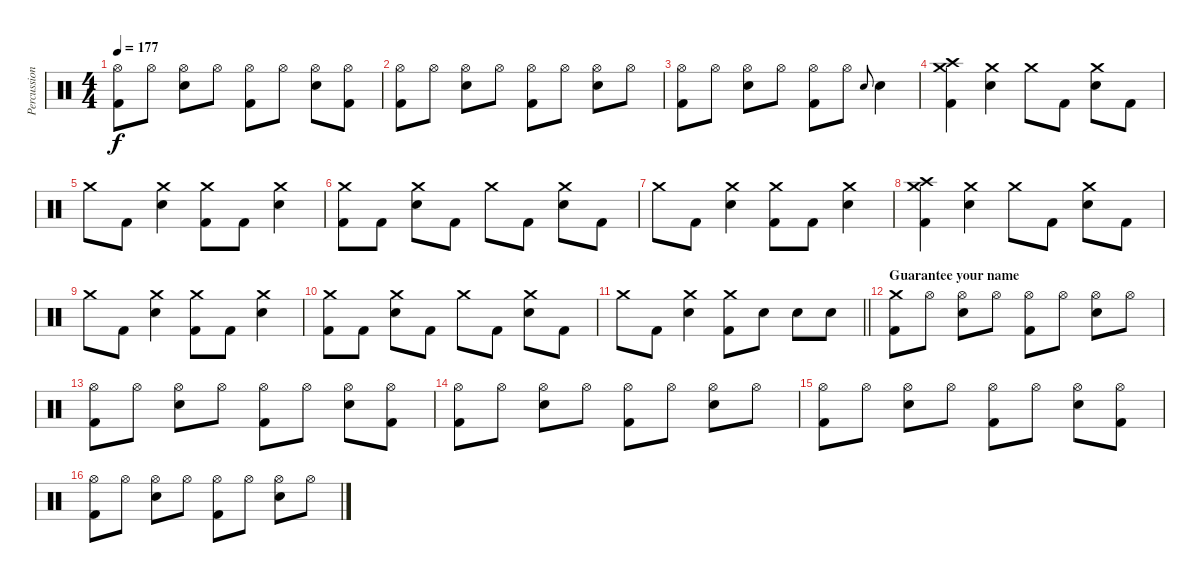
\track ("Percussion" "Percussion") {instrument percussion}
\staff {score}
\articulation defaults
\ts (4 4)
\tempo 177
\clef neutral
\ks c
("Hi-Hat (open)" "Kick (hit) 2").8{dy f} "Hi-Hat (open)".8 ("Hi-Hat (open)" "Snare (hit) 2").8 "Hi-Hat (open)".8 ("Hi-Hat (open)" "Kick (hit) 2").8 "Hi-Hat (open)".8 ("Hi-Hat (open)" "Snare (hit) 2").8 ("Hi-Hat (open)" "Kick (hit) 2").8 |
("Hi-Hat (open)" "Kick (hit) 2").8 "Hi-Hat (open)".8 ("Hi-Hat (open)" "Snare (hit) 2").8 "Hi-Hat (open)".8 ("Hi-Hat (open)" "Kick (hit) 2").8 "Hi-Hat (open)".8 ("Hi-Hat (open)" "Snare (hit) 2").8 "Hi-Hat (open)".8 |
("Hi-Hat (open)" "Kick (hit) 2").8 "Hi-Hat (open)".8 ("Hi-Hat (open)" "Snare (hit) 2").8 "Hi-Hat (open)".8 ("Hi-Hat (open)" "Kick (hit) 2").8 "Hi-Hat (open)".8 "Snare (hit) 2".8{gr onbeat} "Snare (hit) 2".4 |
("Crash medium (hit)" "Crash high (hit)" "Kick (hit) 2").4 ("Crash medium (hit)" "Snare (hit) 2").4 "Crash medium (hit)".8 "Kick (hit) 2".8 ("Crash medium (hit)" "Snare (hit) 2").8 "Kick (hit) 2".8 |
"Crash medium (hit)".8 "Kick (hit) 2".8 ("Crash medium (hit)" "Snare (hit) 2").4 ("Crash medium (hit)" "Kick (hit) 2").8 "Kick (hit) 2".8 ("Crash medium (hit)" "Snare (hit) 2").4 |
("Crash medium (hit)" "Kick (hit) 2").8 "Kick (hit) 2".8 ("Crash medium (hit)" "Snare (hit) 2").8 "Kick (hit) 2".8 "Crash medium (hit)".8 "Kick (hit) 2".8 ("Crash medium (hit)" "Snare (hit) 2").8 "Kick (hit) 2".8 |
"Crash medium (hit)".8 "Kick (hit) 2".8 ("Crash medium (hit)" "Snare (hit) 2").4 ("Crash medium (hit)" "Kick (hit) 2").8 "Kick (hit) 2".8 ("Crash medium (hit)" "Snare (hit) 2").4 |
("Crash medium (hit)" "Crash high (hit)" "Kick (hit) 2").4 ("Crash medium (hit)" "Snare (hit) 2").4 "Crash medium (hit)".8 "Kick (hit) 2".8 ("Crash medium (hit)" "Snare (hit) 2").8 "Kick (hit) 2".8 |
"Crash medium (hit)".8 "Kick (hit) 2".8 ("Crash medium (hit)" "Snare (hit) 2").4 ("Crash medium (hit)" "Kick (hit) 2").8 "Kick (hit) 2".8 ("Crash medium (hit)" "Snare (hit) 2").4 |
("Crash medium (hit)" "Kick (hit) 2").8 "Kick (hit) 2".8 ("Crash medium (hit)" "Snare (hit) 2").8 "Kick (hit) 2".8 "Crash medium (hit)".8 "Kick (hit) 2".8 ("Crash medium (hit)" "Snare (hit) 2").8 "Kick (hit) 2".8 |
\barLineRight lightlight "Crash medium (hit)".8 "Kick (hit) 2".8
("Crash medium (hit)" "Snare (hit) 2").4 ("Crash medium (hit)" "Kick (hit) 2").8 "Snare (hit) 2".8 "Snare (hit) 2".8 "Snare (hit) 2".8 |
\section ("" "Guarantee your name")
("Crash medium (hit)" "Kick (hit) 2").8 "Hi-Hat (open)".8 ("Hi-Hat (open)" "Snare (hit) 2").8 "Hi-Hat (open)".8 ("Hi-Hat (open)" "Kick (hit) 2").8 "Hi-Hat (open)".8 ("Hi-Hat (open)" "Snare (hit) 2").8 "Hi-Hat (open)".8 |
("Hi-Hat (open)" "Kick (hit) 2").8 "Hi-Hat (open)".8 ("Hi-Hat (open)" "Snare (hit) 2").8 "Hi-Hat (open)".8 ("Hi-Hat (open)" "Kick (hit) 2").8 "Hi-Hat (open)".8 ("Hi-Hat (open)" "Snare (hit) 2").8 ("Hi-Hat (open)" "Kick (hit) 2").8 |
("Hi-Hat (open)" "Kick (hit) 2").8 "Hi-Hat (open)".8 ("Hi-Hat (open)" "Snare (hit) 2").8 "Hi-Hat (open)".8 ("Hi-Hat (open)" "Kick (hit) 2").8 "Hi-Hat (open)".8 ("Hi-Hat (open)" "Snare (hit) 2").8 "Hi-Hat (open)".8 |
("Hi-Hat (open)" "Kick (hit) 2").8 "Hi-Hat (open)".8 ("Hi-Hat (open)" "Snare (hit) 2").8 "Hi-Hat (open)".8 ("Hi-Hat (open)" "Kick (hit) 2").8 "Hi-Hat (open)".8 ("Hi-Hat (open)" "Snare (hit) 2").8 ("Hi-Hat (open)" "Kick (hit) 2").8 |
("Hi-Hat (open)" "Kick (hit) 2").8 "Hi-Hat (open)".8 ("Hi-Hat (open)" "Snare (hit) 2").8 "Hi-Hat (open)".8 ("Hi-Hat (open)" "Kick (hit) 2").8 "Hi-Hat (open)".8 ("Hi-Hat (open)" "Snare (hit) 2").8 "Hi-Hat (open)".8
